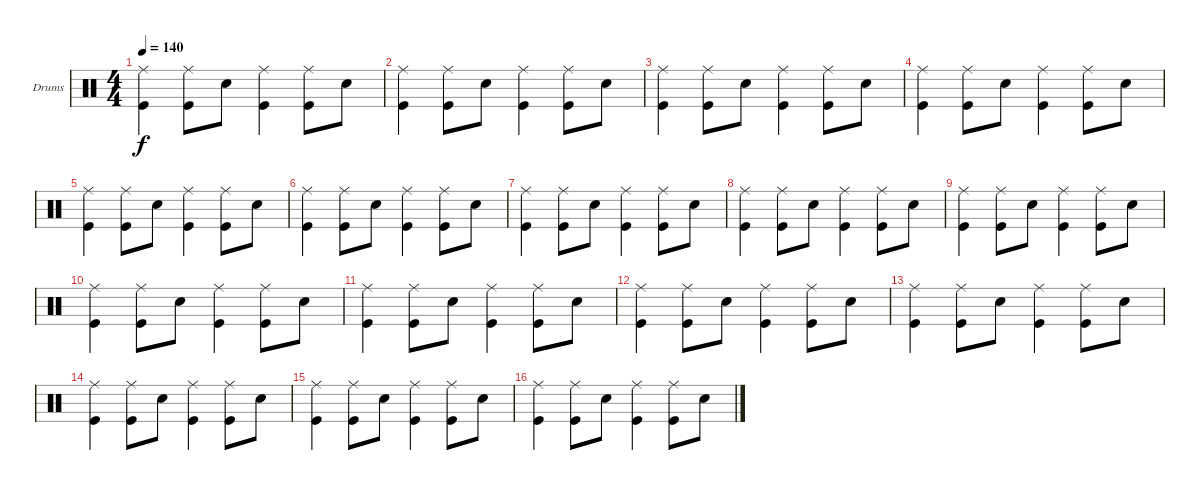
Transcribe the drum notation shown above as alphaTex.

\bracketExtendMode groupsimilarinstruments
\firstSystemTrackNameOrientation horizontal
\otherSystemsTrackNameOrientation horizontal
\track ("Ryan Seamen" "Drums") {instrument percussion}
\staff {score}
\articulation defaults
\ts (4 4)
\tempo 140
\clef neutral
\ks c
("Ride (middle)" "Kick (hit)").4{dy f} ("Ride (middle)" "Kick (hit)").8 "Snare (hit) 2".8 ("Ride (middle)" "Kick (hit)").4 ("Ride (middle)" "Kick (hit)").8 "Snare (hit) 2".8 |
("Ride (middle)" "Kick (hit)").4 ("Ride (middle)" "Kick (hit)").8 "Snare (hit) 2".8 ("Ride (middle)" "Kick (hit)").4 ("Ride (middle)" "Kick (hit)").8 "Snare (hit) 2".8 |
("Ride (middle)" "Kick (hit)").4 ("Ride (middle)" "Kick (hit)").8 "Snare (hit) 2".8 ("Ride (middle)" "Kick (hit)").4 ("Ride (middle)" "Kick (hit)").8 "Snare (hit) 2".8 |
("Ride (middle)" "Kick (hit)").4 ("Ride (middle)" "Kick (hit)").8 "Snare (hit) 2".8 ("Ride (middle)" "Kick (hit)").4 ("Ride (middle)" "Kick (hit)").8 "Snare (hit) 2".8 |
("Ride (middle)" "Kick (hit)").4 ("Ride (middle)" "Kick (hit)").8 "Snare (hit) 2".8 ("Ride (middle)" "Kick (hit)").4 ("Ride (middle)" "Kick (hit)").8 "Snare (hit) 2".8 |
("Ride (middle)" "Kick (hit)").4 ("Ride (middle)" "Kick (hit)").8 "Snare (hit) 2".8 ("Ride (middle)" "Kick (hit)").4 ("Ride (middle)" "Kick (hit)").8 "Snare (hit) 2".8 |
("Ride (middle)" "Kick (hit)").4 ("Ride (middle)" "Kick (hit)").8 "Snare (hit) 2".8 ("Ride (middle)" "Kick (hit)").4 ("Ride (middle)" "Kick (hit)").8 "Snare (hit) 2".8 |
("Ride (middle)" "Kick (hit)").4 ("Ride (middle)" "Kick (hit)").8 "Snare (hit) 2".8 ("Ride (middle)" "Kick (hit)").4 ("Ride (middle)" "Kick (hit)").8 "Snare (hit) 2".8 |
("Ride (middle)" "Kick (hit)").4 ("Ride (middle)" "Kick (hit)").8 "Snare (hit) 2".8 ("Ride (middle)" "Kick (hit)").4 ("Ride (middle)" "Kick (hit)").8 "Snare (hit) 2".8 |
("Ride (middle)" "Kick (hit)").4 ("Ride (middle)" "Kick (hit)").8 "Snare (hit) 2".8 ("Ride (middle)" "Kick (hit)").4 ("Ride (middle)" "Kick (hit)").8 "Snare (hit) 2".8 |
("Ride (middle)" "Kick (hit)").4 ("Ride (middle)" "Kick (hit)").8 "Snare (hit) 2".8 ("Ride (middle)" "Kick (hit)").4 ("Ride (middle)" "Kick (hit)").8 "Snare (hit) 2".8 |
("Ride (middle)" "Kick (hit)").4 ("Ride (middle)" "Kick (hit)").8 "Snare (hit) 2".8 ("Ride (middle)" "Kick (hit)").4 ("Ride (middle)" "Kick (hit)").8 "Snare (hit) 2".8 |
("Ride (middle)" "Kick (hit)").4 ("Ride (middle)" "Kick (hit)").8 "Snare (hit) 2".8 ("Ride (middle)" "Kick (hit)").4 ("Ride (middle)" "Kick (hit)").8 "Snare (hit) 2".8 |
("Ride (middle)" "Kick (hit)").4 ("Ride (middle)" "Kick (hit)").8 "Snare (hit) 2".8 ("Ride (middle)" "Kick (hit)").4 ("Ride (middle)" "Kick (hit)").8 "Snare (hit) 2".8 |
("Ride (middle)" "Kick (hit)").4 ("Ride (middle)" "Kick (hit)").8 "Snare (hit) 2".8 ("Ride (middle)" "Kick (hit)").4 ("Ride (middle)" "Kick (hit)").8 "Snare (hit) 2".8 |
("Ride (middle)" "Kick (hit)").4 ("Ride (middle)" "Kick (hit)").8 "Snare (hit) 2".8 ("Ride (middle)" "Kick (hit)").4 ("Ride (middle)" "Kick (hit)").8 "Snare (hit) 2".8
